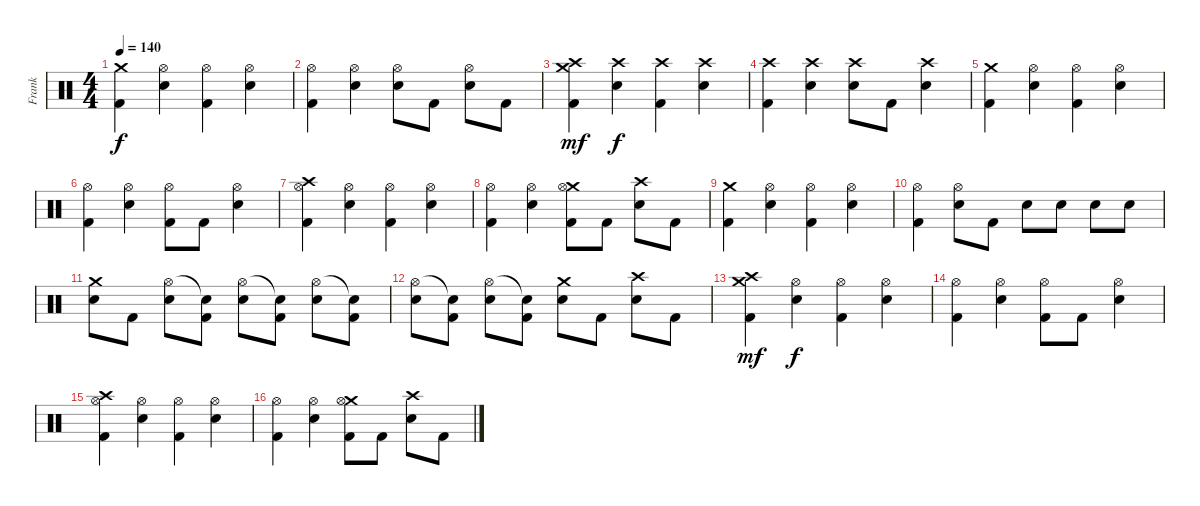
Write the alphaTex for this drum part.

\track ("Frank" "Frank") {instrument percussion}
\staff {score}
\articulation defaults
\ts (4 4)
\tempo 140
\clef neutral
\ks c
("Crash medium (hit)" "Kick (hit) 2").4{dy f} ("Hi-Hat (open)" "Snare (hit) 2").4 ("Hi-Hat (open)" "Kick (hit) 2").4 ("Hi-Hat (open)" "Snare (hit) 2").4 |
("Hi-Hat (open)" "Kick (hit) 2").4 ("Hi-Hat (open)" "Snare (hit) 2").4 ("Hi-Hat (open)" "Snare (hit) 2").8 "Kick (hit) 2".8 ("Hi-Hat (open)" "Snare (hit) 2").8 "Kick (hit) 2".8 |
("Crash medium (hit)" "Crash high (hit)" "Kick (hit) 2").4{dy mf} ("Crash high (hit)" "Snare (hit) 2").4{dy f} ("Crash high (hit)" "Kick (hit) 2").4 ("Crash high (hit)" "Snare (hit) 2").4 |
("Crash high (hit)" "Kick (hit) 2").4 ("Crash high (hit)" "Snare (hit) 2").4 ("Crash high (hit)" "Snare (hit) 2").8 "Kick (hit) 2".8 ("Crash high (hit)" "Snare (hit) 2").4 |
("Crash medium (hit)" "Kick (hit) 2").4 ("Hi-Hat (open)" "Snare (hit) 2").4 ("Hi-Hat (open)" "Kick (hit) 2").4 ("Hi-Hat (open)" "Snare (hit) 2").4 |
("Hi-Hat (open)" "Kick (hit) 2").4 ("Hi-Hat (open)" "Snare (hit) 2").4 ("Hi-Hat (open)" "Kick (hit) 2").8 "Kick (hit) 2".8 ("Hi-Hat (open)" "Snare (hit) 2").4 |
("Crash high (hit)" "Hi-Hat (open)" "Kick (hit) 2").4 ("Hi-Hat (open)" "Snare (hit) 2").4 ("Hi-Hat (open)" "Kick (hit) 2").4 ("Hi-Hat (open)" "Snare (hit) 2").4 |
("Hi-Hat (open)" "Kick (hit) 2").4 ("Hi-Hat (open)" "Snare (hit) 2").4 ("Crash medium (hit)" "Hi-Hat (open)" "Kick (hit) 2").8 "Kick (hit) 2".8 ("Crash high (hit)" "Snare (hit) 2").8 "Kick (hit) 2".8 |
("Crash medium (hit)" "Kick (hit) 2").4 ("Hi-Hat (open)" "Snare (hit) 2").4 ("Hi-Hat (open)" "Kick (hit) 2").4 ("Hi-Hat (open)" "Snare (hit) 2").4 |
("Hi-Hat (open)" "Kick (hit) 2").4 ("Hi-Hat (open)" "Snare (hit) 2").8 "Kick (hit) 2".8 "Snare (hit) 2".8 "Snare (hit) 2".8 "Snare (hit) 2".8 "Snare (hit) 2".8 |
("Crash medium (hit)" "Snare (hit) 2").8 "Kick (hit) 2".8 ("Hi-Hat (open)" "Snare (hit) 2").8 ("Snare (hit)"{t} "Kick (hit) 2").8 ("Hi-Hat (open)" "Snare (hit) 2").8 ("Snare (hit)"{t} "Kick (hit) 2").8 ("Hi-Hat (open)" "Snare (hit) 2").8 ("Snare (hit)"{t} "Kick (hit) 2").8 |
("Hi-Hat (open)" "Snare (hit) 2").8 ("Snare (hit)"{t} "Kick (hit) 2").8 ("Hi-Hat (open)" "Snare (hit) 2").8 ("Snare (hit)"{t} "Kick (hit) 2").8 ("Crash medium (hit)" "Snare (hit) 2").8 "Kick (hit) 2".8 ("Crash high (hit)" "Snare (hit) 2").8 "Kick (hit) 2".8 |
("Crash medium (hit)" "Crash high (hit)" "Kick (hit) 2").4{dy mf} ("Hi-Hat (open)" "Snare (hit) 2").4{dy f} ("Hi-Hat (open)" "Kick (hit) 2").4 ("Hi-Hat (open)" "Snare (hit) 2").4 |
("Hi-Hat (open)" "Kick (hit) 2").4 ("Hi-Hat (open)" "Snare (hit) 2").4 ("Hi-Hat (open)" "Kick (hit) 2").8 "Kick (hit) 2".8 ("Hi-Hat (open)" "Snare (hit) 2").4 |
("Crash high (hit)" "Hi-Hat (open)" "Kick (hit) 2").4 ("Hi-Hat (open)" "Snare (hit) 2").4 ("Hi-Hat (open)" "Kick (hit) 2").4 ("Hi-Hat (open)" "Snare (hit) 2").4 |
("Hi-Hat (open)" "Kick (hit) 2").4 ("Hi-Hat (open)" "Snare (hit) 2").4 ("Crash medium (hit)" "Hi-Hat (open)" "Kick (hit) 2").8 "Kick (hit) 2".8 ("Crash high (hit)" "Snare (hit) 2").8 "Kick (hit) 2".8
